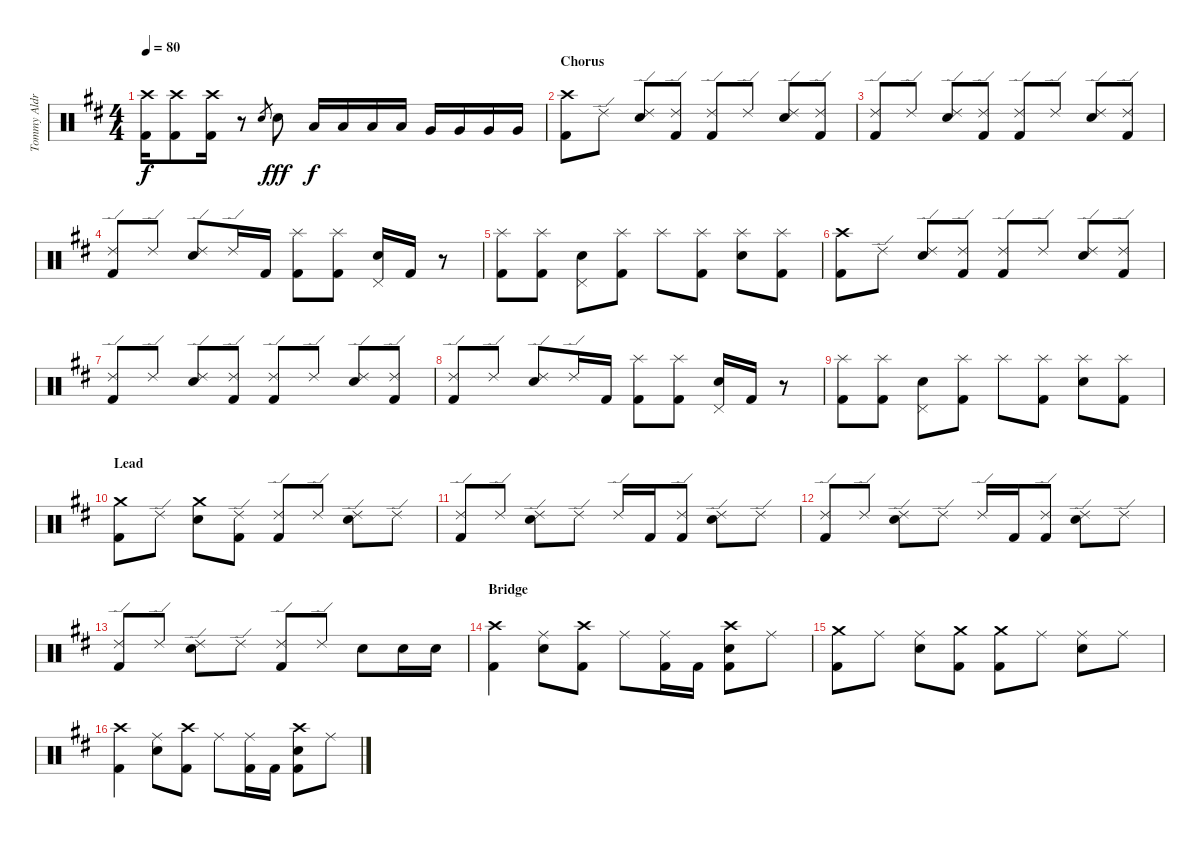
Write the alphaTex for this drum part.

\track ("Tommy Aldridge" "Tommy Aldr") {instrument percussion}
\staff {score}
\articulation defaults
\ts (4 4)
\tempo 80
\clef neutral
\ks bminor
("Crash high (hit)" "Kick (hit) 2").16{dy f} ("Crash high (hit)" "Kick (hit) 2").8 ("Crash high (hit)" "Kick (hit) 2").16 r.8 "Snare (hit) 2".8{gr} "Snare (hit) 2".8{dy fff} "Low Tom (hit)".16{dy f} "Low Tom (hit)".16 "Low Tom (hit)".16 "Low Tom (hit)".16 "Very Low Tom (hit)".16 "Very Low Tom (hit)".16 "Very Low Tom (hit)".16 "Very Low Tom (hit)".16 |
\section ("" "Chorus")
("Crash high (hit)" "Kick (hit) 2").8 "Ride (edge) 2".8 ("Ride (edge) 2" "Snare (hit) 2").8 ("Ride (edge) 2" "Kick (hit) 2").8 ("Ride (edge) 2" "Kick (hit) 2").8 "Ride (edge) 2".8 ("Ride (edge) 2" "Snare (hit) 2").8 ("Ride (edge) 2" "Kick (hit) 2").8 |
("Ride (edge) 2" "Kick (hit) 2").8 "Ride (edge) 2".8 ("Ride (edge) 2" "Snare (hit) 2").8 ("Ride (edge) 2" "Kick (hit) 2").8 ("Ride (edge) 2" "Kick (hit) 2").8 "Ride (edge) 2".8 ("Ride (edge) 2" "Snare (hit) 2").8 ("Ride (edge) 2" "Kick (hit) 2").8 |
("Ride (edge) 2" "Kick (hit) 2").8 "Ride (edge) 2".8 ("Ride (edge) 2" "Snare (hit) 2").8 "Ride (edge) 2".16 "Kick (hit) 2".16 ("Splash (hit)" "Kick (hit) 2").8 ("Splash (hit)" "Kick (hit) 2").8 ("Pedal Hi-Hat (hit)" "Snare (hit) 2").16 "Kick (hit) 2".16 r.8 |
("Splash (hit)" "Kick (hit) 2").8 ("Splash (hit)" "Kick (hit) 2").8 ("Pedal Hi-Hat (hit)" "Snare (hit) 2").8 ("Splash (hit)" "Kick (hit) 2").8 "Splash (hit)".8 ("Splash (hit)" "Kick (hit) 2").8 ("Splash (hit)" "Snare (hit) 2").8 ("Splash (hit)" "Kick (hit) 2").8 |
("Crash high (hit)" "Kick (hit) 2").8 "Ride (edge) 2".8 ("Ride (edge) 2" "Snare (hit) 2").8 ("Ride (edge) 2" "Kick (hit) 2").8 ("Ride (edge) 2" "Kick (hit) 2").8 "Ride (edge) 2".8 ("Ride (edge) 2" "Snare (hit) 2").8 ("Ride (edge) 2" "Kick (hit) 2").8 |
("Ride (edge) 2" "Kick (hit) 2").8 "Ride (edge) 2".8 ("Ride (edge) 2" "Snare (hit) 2").8 ("Ride (edge) 2" "Kick (hit) 2").8 ("Ride (edge) 2" "Kick (hit) 2").8 "Ride (edge) 2".8 ("Ride (edge) 2" "Snare (hit) 2").8 ("Ride (edge) 2" "Kick (hit) 2").8 |
("Ride (edge) 2" "Kick (hit) 2").8 "Ride (edge) 2".8 ("Ride (edge) 2" "Snare (hit) 2").8 "Ride (edge) 2".16 "Kick (hit) 2".16 ("Splash (hit)" "Kick (hit) 2").8 ("Splash (hit)" "Kick (hit) 2").8 ("Pedal Hi-Hat (hit)" "Snare (hit) 2").16 "Kick (hit) 2".16 r.8 |
("Splash (hit)" "Kick (hit) 2").8 ("Splash (hit)" "Kick (hit) 2").8 ("Pedal Hi-Hat (hit)" "Snare (hit) 2").8 ("Splash (hit)" "Kick (hit) 2").8 "Splash (hit)".8 ("Splash (hit)" "Kick (hit) 2").8 ("Splash (hit)" "Snare (hit) 2").8 ("Splash (hit)" "Kick (hit) 2").8 |
\section ("" "Lead")
("Crash medium (hit)" "Kick (hit) 2").8 "Ride (edge) 2".8 ("Crash medium (hit)" "Snare (hit) 2").8 ("Ride (edge) 2" "Kick (hit) 2").8 ("Ride (edge) 2" "Kick (hit) 2").8 "Ride (edge) 2".8 ("Ride (edge) 2" "Snare (hit) 2").8 "Ride (edge) 2".8 |
("Ride (edge) 2" "Kick (hit) 2").8 "Ride (edge) 2".8 ("Ride (edge) 2" "Snare (hit) 2").8 "Ride (edge) 2".8 "Ride (edge) 2".16 "Kick (hit) 2".16 ("Ride (edge) 2" "Kick (hit) 2").8 ("Ride (edge) 2" "Snare (hit) 2").8 "Ride (edge) 2".8 |
("Ride (edge) 2" "Kick (hit) 2").8 "Ride (edge) 2".8 ("Ride (edge) 2" "Snare (hit) 2").8 "Ride (edge) 2".8 "Ride (edge) 2".16 "Kick (hit) 2".16 ("Ride (edge) 2" "Kick (hit) 2").8 ("Ride (edge) 2" "Snare (hit) 2").8 "Ride (edge) 2".8 |
("Ride (edge) 2" "Kick (hit) 2").8 "Ride (edge) 2".8 ("Ride (edge) 2" "Snare (hit) 2").8 "Ride (edge) 2".8 ("Ride (edge) 2" "Kick (hit) 2").8 "Ride (edge) 2".8 "Snare (hit) 2".8 "Snare (hit) 2".16 "Snare (hit) 2".16 |
\section ("" "Bridge")
("Crash high (hit)" "Kick (hit) 2").4 ("Ride (middle)" "Snare (hit) 2").8 ("Crash high (hit)" "Kick (hit) 2").8 "Ride (middle)".8 ("Ride (middle)" "Kick (hit) 2").16 "Kick (hit) 2".16 ("Crash high (hit)" "Snare (hit) 2" "Kick (hit) 2").8 "Ride (middle)".8 |
("Crash medium (hit)" "Kick (hit) 2").8 "Ride (middle)".8 ("Ride (middle)" "Snare (hit) 2").8 ("Crash medium (hit)" "Kick (hit) 2").8 ("Crash medium (hit)" "Kick (hit) 2").8 "Ride (middle)".8 ("Ride (middle)" "Snare (hit) 2").8 "Ride (middle)".8 |
("Crash high (hit)" "Kick (hit) 2").4 ("Ride (middle)" "Snare (hit) 2").8 ("Crash high (hit)" "Kick (hit) 2").8 "Ride (middle)".8 ("Ride (middle)" "Kick (hit) 2").16 "Kick (hit) 2".16 ("Crash high (hit)" "Snare (hit) 2" "Kick (hit) 2").8 "Ride (middle)".8
